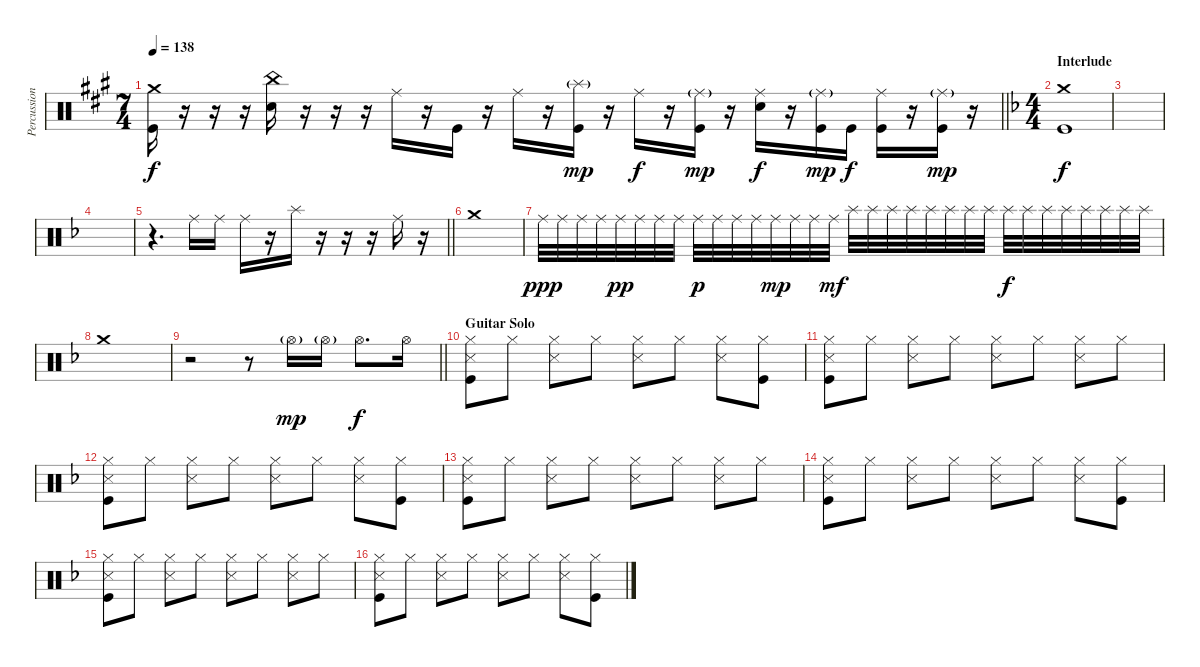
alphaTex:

\track ("Percussion" "Percussion") {instrument percussion}
\staff {score}
\articulation defaults
\ts (7 4)
\tempo 138
\clef neutral
\barLineRight lightlight
\ks a
("Crash medium (hit)" "Kick (hit)").16{dy f} r.16 r.16 r.16 ("China (hit)" "Electric Snare (hit)").16 r.16 r.16 r.16 "Ride (middle)".16 r.16 "Kick (hit)".16 r.16 "Ride (middle)".16 r.16 ("Splash (hit)"{g} "Kick (hit)").16{dy mp} r.16 "Ride (middle)".16{dy f} r.16 ("Ride (middle)"{g} "Kick (hit)").16{dy mp} r.16 ("Ride (middle)" "Electric Snare (hit)").16{dy f} r.16 ("Ride (middle)"{g} "Kick (hit)").16{dy mp} "Kick (hit)".16{dy f} ("Ride (middle)" "Kick (hit)").16 r.16 ("Ride (middle)"{g} "Kick (hit)").16{dy mp} r.16 |
\ts (4 4)
\section ("" "Interlude")
\ks f
("Crash medium (hit)" "Kick (hit)").1{dy f} |
|
|
\barLineRight lightlight
r.4{d} "Ride (middle)".16 "Ride (middle)".16 "Ride (middle)".16 r.16 "Splash (hit)".16 r.16 r.16 r.16 "Ride (middle)".16 r.16 |
"Crash medium (hit)".1 |
"Ride (middle)".32{dy ppp} "Ride (middle)".32 "Ride (middle)".32 "Ride (middle)".32 "Ride (middle)".32{dy pp} "Ride (middle)".32 "Ride (middle)".32 "Ride (middle)".32 "Ride (middle)".32{dy p} "Ride (middle)".32 "Ride (middle)".32 "Ride (middle)".32 "Ride (middle)".32{dy mp} "Ride (middle)".32 "Ride (middle)".32 "Ride (middle)".32{dy mf} "Splash (hit)".32 "Splash (hit)".32 "Splash (hit)".32 "Splash (hit)".32 "Splash (hit)".32 "Splash (hit)".32 "Splash (hit)".32 "Splash (hit)".32 "Splash (hit)".32{dy f} "Splash (hit)".32 "Splash (hit)".32 "Splash (hit)".32 "Splash (hit)".32 "Splash (hit)".32 "Splash (hit)".32 "Splash (hit)".32 |
"Crash medium (hit)".1 |
\barLineRight lightlight
r.2 r.8 "Hi-Hat (open)"{g}.16{dy mp} "Hi-Hat (open)"{g}.16 "Hi-Hat (open)".8{d dy f} "Hi-Hat (open)".16 |
\section ("" "Guitar Solo")
("Hi-Hat (closed)" "Metronome (hit)" "Kick (hit)").8 "Hi-Hat (closed)".8 ("Hi-Hat (closed)" "Metronome (hit)").8 "Hi-Hat (closed)".8 ("Hi-Hat (closed)" "Metronome (hit)").8 "Hi-Hat (closed)".8 ("Hi-Hat (closed)" "Metronome (hit)").8 ("Hi-Hat (closed)" "Kick (hit)").8 |
("Hi-Hat (closed)" "Metronome (hit)" "Kick (hit)").8 "Hi-Hat (closed)".8 ("Hi-Hat (closed)" "Metronome (hit)").8 "Hi-Hat (closed)".8 ("Hi-Hat (closed)" "Metronome (hit)").8 "Hi-Hat (closed)".8 ("Hi-Hat (closed)" "Metronome (hit)").8 "Hi-Hat (closed)".8 |
("Hi-Hat (closed)" "Metronome (hit)" "Kick (hit)").8 "Hi-Hat (closed)".8 ("Hi-Hat (closed)" "Metronome (hit)").8 "Hi-Hat (closed)".8 ("Hi-Hat (closed)" "Metronome (hit)").8 "Hi-Hat (closed)".8 ("Hi-Hat (closed)" "Metronome (hit)").8 ("Hi-Hat (closed)" "Kick (hit)").8 |
("Hi-Hat (closed)" "Metronome (hit)" "Kick (hit)").8 "Hi-Hat (closed)".8 ("Hi-Hat (closed)" "Metronome (hit)").8 "Hi-Hat (closed)".8 ("Hi-Hat (closed)" "Metronome (hit)").8 "Hi-Hat (closed)".8 ("Hi-Hat (closed)" "Metronome (hit)").8 "Hi-Hat (closed)".8 |
("Hi-Hat (closed)" "Metronome (hit)" "Kick (hit)").8 "Hi-Hat (closed)".8 ("Hi-Hat (closed)" "Metronome (hit)").8 "Hi-Hat (closed)".8 ("Hi-Hat (closed)" "Metronome (hit)").8 "Hi-Hat (closed)".8 ("Hi-Hat (closed)" "Metronome (hit)").8 ("Hi-Hat (closed)" "Kick (hit)").8 |
("Hi-Hat (closed)" "Metronome (hit)" "Kick (hit)").8 "Hi-Hat (closed)".8 ("Hi-Hat (closed)" "Metronome (hit)").8 "Hi-Hat (closed)".8 ("Hi-Hat (closed)" "Metronome (hit)").8 "Hi-Hat (closed)".8 ("Hi-Hat (closed)" "Metronome (hit)").8 "Hi-Hat (closed)".8 |
("Hi-Hat (closed)" "Metronome (hit)" "Kick (hit)").8 "Hi-Hat (closed)".8 ("Hi-Hat (closed)" "Metronome (hit)").8 "Hi-Hat (closed)".8 ("Hi-Hat (closed)" "Metronome (hit)").8 "Hi-Hat (closed)".8 ("Hi-Hat (closed)" "Metronome (hit)").8 ("Hi-Hat (closed)" "Kick (hit)").8
